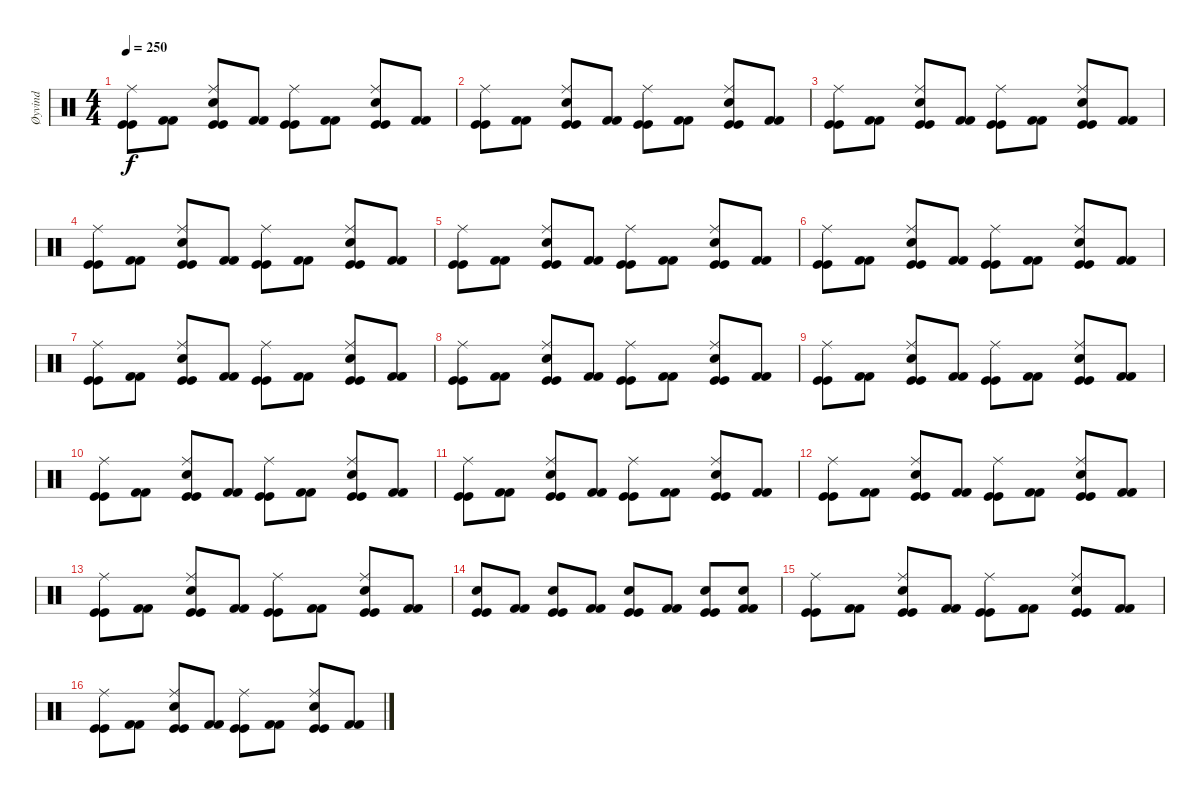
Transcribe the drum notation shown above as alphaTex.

\track ("Øyvind" "Øyvind") {instrument percussion}
\staff {score}
\articulation defaults
\ts (4 4)
\tempo 250
\clef neutral
\ks c
("Kick (hit)" "Ride (middle)" "Kick (hit)").8{dy f} ("Kick (hit) 2" "Kick (hit) 2").8 ("Kick (hit)" "Snare (hit) 2" "Ride (middle)" "Kick (hit)").8 ("Kick (hit) 2" "Kick (hit) 2").8 ("Kick (hit)" "Ride (middle)" "Kick (hit)").8 ("Kick (hit) 2" "Kick (hit) 2").8 ("Kick (hit)" "Snare (hit) 2" "Ride (middle)" "Kick (hit)").8 ("Kick (hit) 2" "Kick (hit) 2").8 |
("Kick (hit)" "Ride (middle)" "Kick (hit)").8 ("Kick (hit) 2" "Kick (hit) 2").8 ("Kick (hit)" "Snare (hit) 2" "Ride (middle)" "Kick (hit)").8 ("Kick (hit) 2" "Kick (hit) 2").8 ("Kick (hit)" "Ride (middle)" "Kick (hit)").8 ("Kick (hit) 2" "Kick (hit) 2").8 ("Kick (hit)" "Snare (hit) 2" "Ride (middle)" "Kick (hit)").8 ("Kick (hit) 2" "Kick (hit) 2").8 |
("Kick (hit)" "Ride (middle)" "Kick (hit)").8 ("Kick (hit) 2" "Kick (hit) 2").8 ("Kick (hit)" "Snare (hit) 2" "Ride (middle)" "Kick (hit)").8 ("Kick (hit) 2" "Kick (hit) 2").8 ("Kick (hit)" "Ride (middle)" "Kick (hit)").8 ("Kick (hit) 2" "Kick (hit) 2").8 ("Kick (hit)" "Snare (hit) 2" "Ride (middle)" "Kick (hit)").8 ("Kick (hit) 2" "Kick (hit) 2").8 |
("Kick (hit)" "Ride (middle)" "Kick (hit)").8 ("Kick (hit) 2" "Kick (hit) 2").8 ("Kick (hit)" "Snare (hit) 2" "Ride (middle)" "Kick (hit)").8 ("Kick (hit) 2" "Kick (hit) 2").8 ("Kick (hit)" "Ride (middle)" "Kick (hit)").8 ("Kick (hit) 2" "Kick (hit) 2").8 ("Kick (hit)" "Snare (hit) 2" "Ride (middle)" "Kick (hit)").8 ("Kick (hit) 2" "Kick (hit) 2").8 |
("Kick (hit)" "Ride (middle)" "Kick (hit)").8 ("Kick (hit) 2" "Kick (hit) 2").8 ("Kick (hit)" "Snare (hit) 2" "Ride (middle)" "Kick (hit)").8 ("Kick (hit) 2" "Kick (hit) 2").8 ("Kick (hit)" "Ride (middle)" "Kick (hit)").8 ("Kick (hit) 2" "Kick (hit) 2").8 ("Kick (hit)" "Snare (hit) 2" "Ride (middle)" "Kick (hit)").8 ("Kick (hit) 2" "Kick (hit) 2").8 |
("Kick (hit)" "Ride (middle)" "Kick (hit)").8 ("Kick (hit) 2" "Kick (hit) 2").8 ("Kick (hit)" "Snare (hit) 2" "Ride (middle)" "Kick (hit)").8 ("Kick (hit) 2" "Kick (hit) 2").8 ("Kick (hit)" "Ride (middle)" "Kick (hit)").8 ("Kick (hit) 2" "Kick (hit) 2").8 ("Kick (hit)" "Snare (hit) 2" "Ride (middle)" "Kick (hit)").8 ("Kick (hit) 2" "Kick (hit) 2").8 |
("Kick (hit)" "Ride (middle)" "Kick (hit)").8 ("Kick (hit) 2" "Kick (hit) 2").8 ("Kick (hit)" "Snare (hit) 2" "Ride (middle)" "Kick (hit)").8 ("Kick (hit) 2" "Kick (hit) 2").8 ("Kick (hit)" "Ride (middle)" "Kick (hit)").8 ("Kick (hit) 2" "Kick (hit) 2").8 ("Kick (hit)" "Snare (hit) 2" "Ride (middle)" "Kick (hit)").8 ("Kick (hit) 2" "Kick (hit) 2").8 |
("Kick (hit)" "Ride (middle)" "Kick (hit)").8 ("Kick (hit) 2" "Kick (hit) 2").8 ("Kick (hit)" "Snare (hit) 2" "Ride (middle)" "Kick (hit)").8 ("Kick (hit) 2" "Kick (hit) 2").8 ("Kick (hit)" "Ride (middle)" "Kick (hit)").8 ("Kick (hit) 2" "Kick (hit) 2").8 ("Kick (hit)" "Snare (hit) 2" "Ride (middle)" "Kick (hit)").8 ("Kick (hit) 2" "Kick (hit) 2").8 |
("Kick (hit)" "Ride (middle)" "Kick (hit)").8 ("Kick (hit) 2" "Kick (hit) 2").8 ("Kick (hit)" "Snare (hit) 2" "Ride (middle)" "Kick (hit)").8 ("Kick (hit) 2" "Kick (hit) 2").8 ("Kick (hit)" "Ride (middle)" "Kick (hit)").8 ("Kick (hit) 2" "Kick (hit) 2").8 ("Kick (hit)" "Snare (hit) 2" "Ride (middle)" "Kick (hit)").8 ("Kick (hit) 2" "Kick (hit) 2").8 |
("Kick (hit)" "Ride (middle)" "Kick (hit)").8 ("Kick (hit) 2" "Kick (hit) 2").8 ("Kick (hit)" "Snare (hit) 2" "Ride (middle)" "Kick (hit)").8 ("Kick (hit) 2" "Kick (hit) 2").8 ("Kick (hit)" "Ride (middle)" "Kick (hit)").8 ("Kick (hit) 2" "Kick (hit) 2").8 ("Kick (hit)" "Snare (hit) 2" "Ride (middle)" "Kick (hit)").8 ("Kick (hit) 2" "Kick (hit) 2").8 |
("Kick (hit)" "Ride (middle)" "Kick (hit)").8 ("Kick (hit) 2" "Kick (hit) 2").8 ("Kick (hit)" "Snare (hit) 2" "Ride (middle)" "Kick (hit)").8 ("Kick (hit) 2" "Kick (hit) 2").8 ("Kick (hit)" "Ride (middle)" "Kick (hit)").8 ("Kick (hit) 2" "Kick (hit) 2").8 ("Kick (hit)" "Snare (hit) 2" "Ride (middle)" "Kick (hit)").8 ("Kick (hit) 2" "Kick (hit) 2").8 |
("Kick (hit)" "Ride (middle)" "Kick (hit)").8 ("Kick (hit) 2" "Kick (hit) 2").8 ("Kick (hit)" "Snare (hit) 2" "Ride (middle)" "Kick (hit)").8 ("Kick (hit) 2" "Kick (hit) 2").8 ("Kick (hit)" "Ride (middle)" "Kick (hit)").8 ("Kick (hit) 2" "Kick (hit) 2").8 ("Kick (hit)" "Snare (hit) 2" "Ride (middle)" "Kick (hit)").8 ("Kick (hit) 2" "Kick (hit) 2").8 |
("Kick (hit)" "Ride (middle)" "Kick (hit)").8 ("Kick (hit) 2" "Kick (hit) 2").8 ("Kick (hit)" "Snare (hit) 2" "Ride (middle)" "Kick (hit)").8 ("Kick (hit) 2" "Kick (hit) 2").8 ("Kick (hit)" "Ride (middle)" "Kick (hit)").8 ("Kick (hit) 2" "Kick (hit) 2").8 ("Kick (hit)" "Snare (hit) 2" "Ride (middle)" "Kick (hit)").8 ("Kick (hit) 2" "Kick (hit) 2").8 |
("Kick (hit)" "Snare (hit) 2" "Kick (hit)").8 ("Kick (hit) 2" "Kick (hit) 2").8 ("Kick (hit)" "Snare (hit) 2" "Kick (hit)").8 ("Kick (hit) 2" "Kick (hit) 2").8 ("Kick (hit)" "Snare (hit) 2" "Kick (hit)").8 ("Kick (hit) 2" "Kick (hit) 2").8 ("Kick (hit)" "Snare (hit) 2" "Kick (hit)").8 ("Kick (hit) 2" "Snare (hit) 2" "Kick (hit) 2").8 |
("Kick (hit)" "Ride (middle)" "Kick (hit)").8 ("Kick (hit) 2" "Kick (hit) 2").8 ("Kick (hit)" "Snare (hit) 2" "Ride (middle)" "Kick (hit)").8 ("Kick (hit) 2" "Kick (hit) 2").8 ("Kick (hit)" "Ride (middle)" "Kick (hit)").8 ("Kick (hit) 2" "Kick (hit) 2").8 ("Kick (hit)" "Snare (hit) 2" "Ride (middle)" "Kick (hit)").8 ("Kick (hit) 2" "Kick (hit) 2").8 |
("Kick (hit)" "Ride (middle)" "Kick (hit)").8 ("Kick (hit) 2" "Kick (hit) 2").8 ("Kick (hit)" "Snare (hit) 2" "Ride (middle)" "Kick (hit)").8 ("Kick (hit) 2" "Kick (hit) 2").8 ("Kick (hit)" "Ride (middle)" "Kick (hit)").8 ("Kick (hit) 2" "Kick (hit) 2").8 ("Kick (hit)" "Snare (hit) 2" "Ride (middle)" "Kick (hit)").8 ("Kick (hit) 2" "Kick (hit) 2").8
